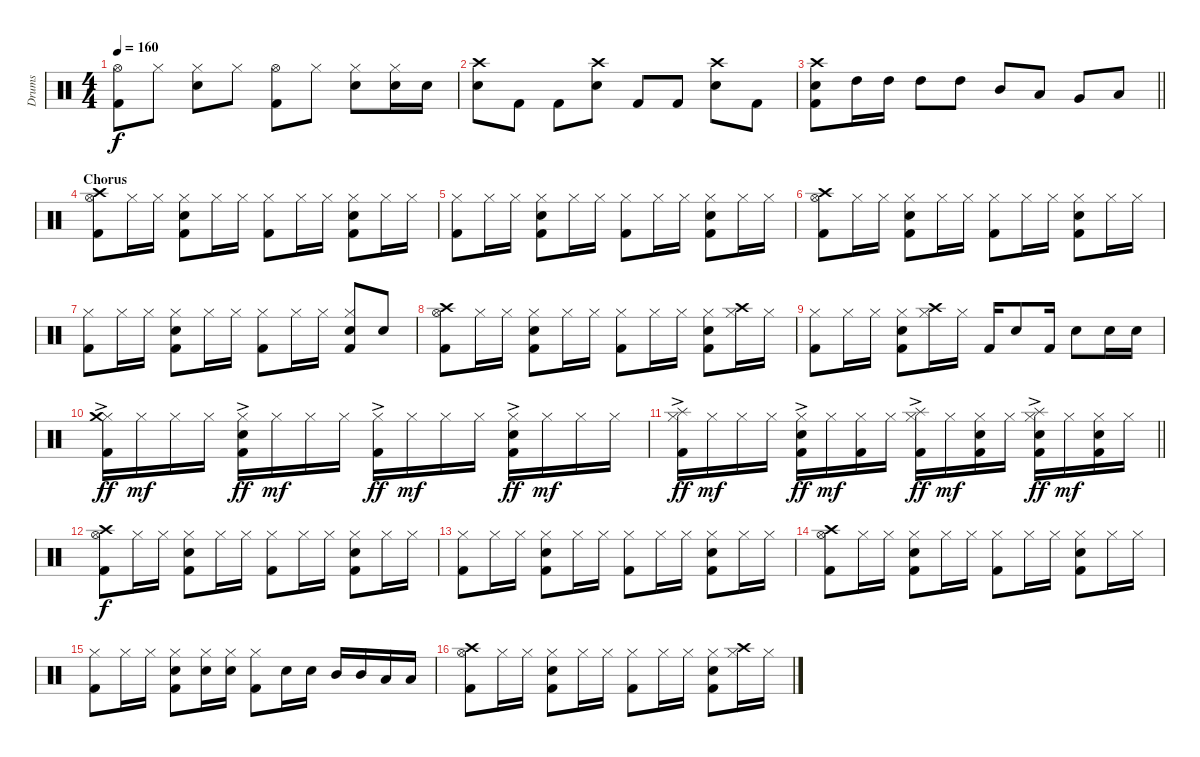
\track ("Drums" "Drums") {instrument percussion}
\staff {score}
\articulation defaults
\ts (4 4)
\tempo 160
\clef neutral
\ks c
("Hi-Hat (open)" "Kick (hit) 2").8{dy f} "Hi-Hat (closed)".8 ("Hi-Hat (closed)" "Snare (hit) 2").8 "Hi-Hat (closed)".8 ("Hi-Hat (open)" "Kick (hit) 2").8 "Hi-Hat (closed)".8 ("Hi-Hat (closed)" "Snare (hit) 2").8 ("Hi-Hat (closed)" "Snare (hit) 2").16 "Snare (hit) 2".16 |
("Crash high (hit)" "Snare (hit) 2").8 "Kick (hit) 2".8 "Kick (hit) 2".8 ("Crash high (hit)" "Snare (hit) 2").8 "Kick (hit) 2".8 "Kick (hit) 2".8 ("Crash high (hit)" "Snare (hit) 2").8 "Kick (hit) 2".8 |
\barLineRight lightlight
("Crash high (hit)" "Snare (hit) 2" "Kick (hit) 2").8 "High Tom (hit)".16 "High Tom (hit)".16 "High Tom (hit)".8 "High Tom (hit)".8 "Mid Tom (hit)".8 "Low Tom (hit)".8 "Very Low Tom (hit)".8 "Low Floor Tom (hit)".8 |
\section ("" "Chorus")
("Hi-Hat (open)" "Crash high (hit)" "Kick (hit) 2").8 "Hi-Hat (closed)".16 "Hi-Hat (closed)".16 ("Hi-Hat (closed)" "Snare (hit) 2" "Kick (hit) 2").8 "Hi-Hat (closed)".16 "Hi-Hat (closed)".16 ("Hi-Hat (closed)" "Kick (hit) 2").8 "Hi-Hat (closed)".16 "Hi-Hat (closed)".16 ("Hi-Hat (closed)" "Snare (hit) 2" "Kick (hit) 2").8 "Hi-Hat (closed)".16 "Hi-Hat (closed)".16 |
("Hi-Hat (closed)" "Kick (hit) 2").8 "Hi-Hat (closed)".16 "Hi-Hat (closed)".16 ("Hi-Hat (closed)" "Snare (hit) 2" "Kick (hit) 2").8 "Hi-Hat (closed)".16 "Hi-Hat (closed)".16 ("Hi-Hat (closed)" "Kick (hit) 2").8 "Hi-Hat (closed)".16 "Hi-Hat (closed)".16 ("Hi-Hat (closed)" "Snare (hit) 2" "Kick (hit) 2").8 "Hi-Hat (closed)".16 "Hi-Hat (closed)".16 |
("Hi-Hat (open)" "Crash high (hit)" "Kick (hit) 2").8 "Hi-Hat (closed)".16 "Hi-Hat (closed)".16 ("Hi-Hat (closed)" "Snare (hit) 2" "Kick (hit) 2").8 "Hi-Hat (closed)".16 "Hi-Hat (closed)".16 ("Hi-Hat (closed)" "Kick (hit) 2").8 "Hi-Hat (closed)".16 "Hi-Hat (closed)".16 ("Hi-Hat (closed)" "Snare (hit) 2" "Kick (hit) 2").8 "Hi-Hat (closed)".16 "Hi-Hat (closed)".16 |
("Hi-Hat (closed)" "Kick (hit) 2").8 "Hi-Hat (closed)".16 "Hi-Hat (closed)".16 ("Hi-Hat (closed)" "Snare (hit) 2" "Kick (hit) 2").8 "Hi-Hat (closed)".16 "Hi-Hat (closed)".16 ("Hi-Hat (closed)" "Kick (hit) 2").8 "Hi-Hat (closed)".16 "Hi-Hat (closed)".16 ("Hi-Hat (closed)" "Snare (hit) 2" "Kick (hit) 2").8 "Snare (hit) 2".8 |
("Hi-Hat (open)" "Crash high (hit)" "Kick (hit) 2").8 "Hi-Hat (closed)".16 "Hi-Hat (closed)".16 ("Hi-Hat (closed)" "Snare (hit) 2" "Kick (hit) 2").8 "Hi-Hat (closed)".16 "Hi-Hat (closed)".16 ("Hi-Hat (closed)" "Kick (hit) 2").8 "Hi-Hat (closed)".16 "Hi-Hat (closed)".16 ("Hi-Hat (closed)" "Snare (hit) 2" "Kick (hit) 2").8 ("Hi-Hat (closed)" "Crash high (hit)").16 "Hi-Hat (closed)".16 |
("Hi-Hat (closed)" "Kick (hit) 2").8 "Hi-Hat (closed)".16 "Hi-Hat (closed)".16 ("Hi-Hat (closed)" "Snare (hit) 2" "Kick (hit) 2").8 ("Hi-Hat (closed)" "Crash high (hit)").16 "Hi-Hat (closed)".16 "Kick (hit) 2".16 "Snare (hit) 2".8 "Kick (hit) 2".16 "Snare (hit) 2".8 "Snare (hit) 2".16 "Snare (hit) 2".16 |
("Hi-Hat (closed)"{ac} "Crash medium (hit)" "Kick (hit) 2").16{dy ff} "Hi-Hat (closed)".16{dy mf} "Hi-Hat (closed)".16 "Hi-Hat (closed)".16 ("Hi-Hat (closed)"{ac} "Snare (hit) 2" "Kick (hit) 2").16{dy ff} "Hi-Hat (closed)".16{dy mf} "Hi-Hat (closed)".16 "Hi-Hat (closed)".16 ("Hi-Hat (closed)"{ac} "Kick (hit) 2").16{dy ff} "Hi-Hat (closed)".16{dy mf} "Hi-Hat (closed)".16 "Hi-Hat (closed)".16 ("Hi-Hat (closed)"{ac} "Snare (hit) 2" "Kick (hit) 2").16{dy ff} "Hi-Hat (closed)".16{dy mf} "Hi-Hat (closed)".16 "Hi-Hat (closed)".16 |
\barLineRight lightlight
("Hi-Hat (closed)"{ac} "Splash (hit)" "Kick (hit) 2").16{dy ff} "Hi-Hat (closed)".16{dy mf} "Hi-Hat (closed)".16 "Hi-Hat (closed)".16 ("Hi-Hat (closed)"{ac} "Snare (hit) 2" "Kick (hit) 2").16{dy ff} "Hi-Hat (closed)".16{dy mf} ("Hi-Hat (closed)" "Kick (hit) 2").16 "Hi-Hat (closed)".16 ("Hi-Hat (closed)"{ac} "Splash (hit)" "Kick (hit) 2").16{dy ff} "Hi-Hat (closed)".16{dy mf} ("Hi-Hat (closed)" "Snare (hit) 2" "Kick (hit) 2").16 "Hi-Hat (closed)".16 ("Hi-Hat (closed)"{ac} "Snare (hit) 2" "Splash (hit)" "Kick (hit) 2").16{dy ff} "Hi-Hat (closed)".16{dy mf} ("Hi-Hat (closed)" "Snare (hit) 2" "Kick (hit) 2").16 "Hi-Hat (closed)".16 |
("Hi-Hat (open)" "Crash high (hit)" "Kick (hit) 2").8{dy f} "Hi-Hat (closed)".16 "Hi-Hat (closed)".16 ("Hi-Hat (closed)" "Snare (hit) 2" "Kick (hit) 2").8 "Hi-Hat (closed)".16 "Hi-Hat (closed)".16 ("Hi-Hat (closed)" "Kick (hit) 2").8 "Hi-Hat (closed)".16 "Hi-Hat (closed)".16 ("Hi-Hat (closed)" "Snare (hit) 2" "Kick (hit) 2").8 "Hi-Hat (closed)".16 "Hi-Hat (closed)".16 |
("Hi-Hat (closed)" "Kick (hit) 2").8 "Hi-Hat (closed)".16 "Hi-Hat (closed)".16 ("Hi-Hat (closed)" "Snare (hit) 2" "Kick (hit) 2").8 "Hi-Hat (closed)".16 "Hi-Hat (closed)".16 ("Hi-Hat (closed)" "Kick (hit) 2").8 "Hi-Hat (closed)".16 "Hi-Hat (closed)".16 ("Hi-Hat (closed)" "Snare (hit) 2" "Kick (hit) 2").8 "Hi-Hat (closed)".16 "Hi-Hat (closed)".16 |
("Hi-Hat (open)" "Crash high (hit)" "Kick (hit) 2").8 "Hi-Hat (closed)".16 "Hi-Hat (closed)".16 ("Hi-Hat (closed)" "Snare (hit) 2" "Kick (hit) 2").8 "Hi-Hat (closed)".16 "Hi-Hat (closed)".16 ("Hi-Hat (closed)" "Kick (hit) 2").8 "Hi-Hat (closed)".16 "Hi-Hat (closed)".16 ("Hi-Hat (closed)" "Snare (hit) 2" "Kick (hit) 2").8 "Hi-Hat (closed)".16 "Hi-Hat (closed)".16 |
("Hi-Hat (closed)" "Kick (hit) 2").8 "Hi-Hat (closed)".16 "Hi-Hat (closed)".16 ("Hi-Hat (closed)" "Snare (hit) 2" "Kick (hit) 2").8 ("Hi-Hat (closed)" "Snare (hit) 2").16 ("Hi-Hat (closed)" "Snare (hit) 2").16 ("Hi-Hat (closed)" "Kick (hit) 2").8 "Snare (hit) 2".16 "Snare (hit) 2".16 "Mid Tom (hit)".16 "Mid Tom (hit)".16 "Low Tom (hit)".16 "Low Tom (hit)".16 |
("Hi-Hat (open)" "Crash high (hit)" "Kick (hit) 2").8 "Hi-Hat (closed)".16 "Hi-Hat (closed)".16 ("Hi-Hat (closed)" "Snare (hit) 2" "Kick (hit) 2").8 "Hi-Hat (closed)".16 "Hi-Hat (closed)".16 ("Hi-Hat (closed)" "Kick (hit) 2").8 "Hi-Hat (closed)".16 "Hi-Hat (closed)".16 ("Hi-Hat (closed)" "Snare (hit) 2" "Kick (hit) 2").8 ("Hi-Hat (closed)" "Crash high (hit)").16 "Hi-Hat (closed)".16
